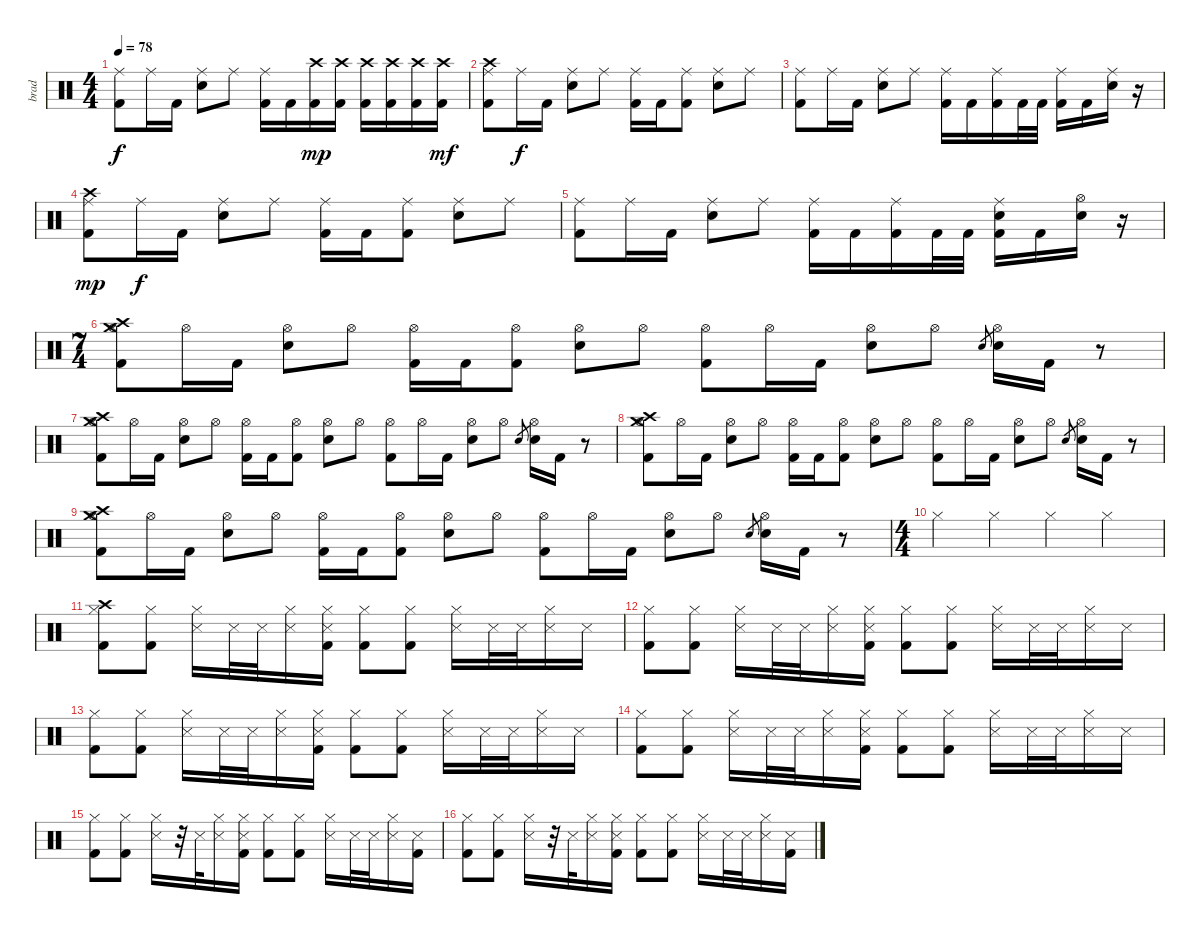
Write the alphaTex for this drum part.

\track ("brad" "brad") {instrument percussion}
\staff {score}
\articulation defaults
\ts (4 4)
\tempo 78
\clef neutral
\ks c
("Ride (middle)" "Kick (hit) 2").8{dy f} "Ride (middle)".16 "Kick (hit) 2".16 ("Ride (middle)" "Electric Snare (hit)").8 "Ride (middle)".8 ("Ride (middle)" "Kick (hit) 2").16 "Kick (hit) 2".16 ("Crash high (hit)" "Kick (hit) 2").16{dy mp} ("Crash high (hit)" "Kick (hit) 2").16 ("Crash high (hit)" "Kick (hit) 2").16 ("Crash high (hit)" "Kick (hit) 2").16 ("Crash high (hit)" "Kick (hit) 2").16 ("Crash high (hit)" "Kick (hit) 2").16{dy mf} |
("Crash high (hit)" "Ride (middle)" "Kick (hit) 2").8 "Ride (middle)".16{dy f} "Kick (hit) 2".16 ("Ride (middle)" "Electric Snare (hit)").8 "Ride (middle)".8 ("Ride (middle)" "Kick (hit) 2").16 "Kick (hit) 2".16 ("Ride (middle)" "Kick (hit) 2").8 ("Ride (middle)" "Electric Snare (hit)").8 "Ride (middle)".8 |
("Ride (middle)" "Kick (hit) 2").8 "Ride (middle)".16 "Kick (hit) 2".16 ("Ride (middle)" "Electric Snare (hit)").8 "Ride (middle)".8 ("Ride (middle)" "Kick (hit) 2").16 "Kick (hit) 2".16 ("Ride (middle)" "Kick (hit) 2").16 "Kick (hit) 2".32 "Kick (hit) 2".32 ("Ride (middle)" "Kick (hit) 2").16 "Kick (hit) 2".16 ("Ride (middle)" "Electric Snare (hit)").16 r.16 |
("Crash high (hit)" "Ride (middle)" "Kick (hit) 2").8{dy mp} "Ride (middle)".16{dy f} "Kick (hit) 2".16 ("Ride (middle)" "Electric Snare (hit)").8 "Ride (middle)".8 ("Ride (middle)" "Kick (hit) 2").16 "Kick (hit) 2".16 ("Ride (middle)" "Kick (hit) 2").8 ("Ride (middle)" "Electric Snare (hit)").8 "Ride (middle)".8 |
("Ride (middle)" "Kick (hit) 2").8 "Ride (middle)".16 "Kick (hit) 2".16 ("Ride (middle)" "Electric Snare (hit)").8 "Ride (middle)".8 ("Ride (middle)" "Kick (hit) 2").16 "Kick (hit) 2".16 ("Ride (middle)" "Kick (hit) 2").16 "Kick (hit) 2".32 "Kick (hit) 2".32 ("Ride (middle)" "Electric Snare (hit)" "Kick (hit) 2").16 "Kick (hit) 2".16 ("Hi-Hat (open)" "Electric Snare (hit)").16 r.16 |
\ts (7 4)
("Crash medium (hit)" "Crash high (hit)" "Hi-Hat (open)" "Kick (hit) 2").8 "Hi-Hat (open)".16 "Kick (hit) 2".16 ("Hi-Hat (open)" "Electric Snare (hit)").8 "Hi-Hat (open)".8 ("Hi-Hat (open)" "Kick (hit) 2").16 "Kick (hit) 2".16 ("Hi-Hat (open)" "Kick (hit) 2").8 ("Hi-Hat (open)" "Electric Snare (hit)").8 "Hi-Hat (open)".8 ("Hi-Hat (open)" "Kick (hit) 2").8 "Hi-Hat (open)".16 "Kick (hit) 2".16 ("Hi-Hat (open)" "Electric Snare (hit)").8 "Hi-Hat (open)".8 "Electric Snare (hit)".8{gr} ("Hi-Hat (open)" "Electric Snare (hit)").16 "Kick (hit) 2".16 r.8 |
("Crash medium (hit)" "Crash high (hit)" "Hi-Hat (open)" "Kick (hit) 2").8 "Hi-Hat (open)".16 "Kick (hit) 2".16 ("Hi-Hat (open)" "Electric Snare (hit)").8 "Hi-Hat (open)".8 ("Hi-Hat (open)" "Kick (hit) 2").16 "Kick (hit) 2".16 ("Hi-Hat (open)" "Kick (hit) 2").8 ("Hi-Hat (open)" "Electric Snare (hit)").8 "Hi-Hat (open)".8 ("Hi-Hat (open)" "Kick (hit) 2").8 "Hi-Hat (open)".16 "Kick (hit) 2".16 ("Hi-Hat (open)" "Electric Snare (hit)").8 "Hi-Hat (open)".8 "Electric Snare (hit)".8{gr} ("Hi-Hat (open)" "Electric Snare (hit)").16 "Kick (hit) 2".16 r.8 |
("Crash medium (hit)" "Crash high (hit)" "Hi-Hat (open)" "Kick (hit) 2").8 "Hi-Hat (open)".16 "Kick (hit) 2".16 ("Hi-Hat (open)" "Electric Snare (hit)").8 "Hi-Hat (open)".8 ("Hi-Hat (open)" "Kick (hit) 2").16 "Kick (hit) 2".16 ("Hi-Hat (open)" "Kick (hit) 2").8 ("Hi-Hat (open)" "Electric Snare (hit)").8 "Hi-Hat (open)".8 ("Hi-Hat (open)" "Kick (hit) 2").8 "Hi-Hat (open)".16 "Kick (hit) 2".16 ("Hi-Hat (open)" "Electric Snare (hit)").8 "Hi-Hat (open)".8 "Electric Snare (hit)".8{gr} ("Hi-Hat (open)" "Electric Snare (hit)").16 "Kick (hit) 2".16 r.8 |
("Crash medium (hit)" "Crash high (hit)" "Hi-Hat (open)" "Kick (hit) 2").8 "Hi-Hat (open)".16 "Kick (hit) 2".16 ("Hi-Hat (open)" "Electric Snare (hit)").8 "Hi-Hat (open)".8 ("Hi-Hat (open)" "Kick (hit) 2").16 "Kick (hit) 2".16 ("Hi-Hat (open)" "Kick (hit) 2").8 ("Hi-Hat (open)" "Electric Snare (hit)").8 "Hi-Hat (open)".8 ("Hi-Hat (open)" "Kick (hit) 2").8 "Hi-Hat (open)".16 "Kick (hit) 2".16 ("Hi-Hat (open)" "Electric Snare (hit)").8 "Hi-Hat (open)".8 "Electric Snare (hit)".8{gr} ("Hi-Hat (open)" "Electric Snare (hit)").16 "Kick (hit) 2".16 r.8 |
\ts (4 4)
"Hi-Hat (closed)".4 "Hi-Hat (closed)".4 "Hi-Hat (closed)".4 "Hi-Hat (closed)".4 |
("Crash high (hit)" "Hi-Hat (closed)" "Kick (hit) 2").8 ("Hi-Hat (closed)" "Kick (hit) 2").8 ("Hi-Hat (closed)" "Snare (side stick) 3").16 "Snare (side stick) 3".32 "Snare (side stick) 3".32 ("Hi-Hat (closed)" "Snare (side stick) 3").16 ("Hi-Hat (closed)" "Snare (side stick) 3" "Kick (hit) 2").16 ("Hi-Hat (closed)" "Kick (hit) 2").8 ("Hi-Hat (closed)" "Kick (hit) 2").8 ("Hi-Hat (closed)" "Snare (side stick) 3").16 "Snare (side stick) 3".32 "Snare (side stick) 3".32 ("Hi-Hat (closed)" "Snare (side stick) 3").16 "Snare (side stick) 3".16 |
("Hi-Hat (closed)" "Kick (hit) 2").8 ("Hi-Hat (closed)" "Kick (hit) 2").8 ("Hi-Hat (closed)" "Snare (side stick) 3").16 "Snare (side stick) 3".32 "Snare (side stick) 3".32 ("Hi-Hat (closed)" "Snare (side stick) 3").16 ("Hi-Hat (closed)" "Snare (side stick) 3" "Kick (hit) 2").16 ("Hi-Hat (closed)" "Kick (hit) 2").8 ("Hi-Hat (closed)" "Kick (hit) 2").8 ("Hi-Hat (closed)" "Snare (side stick) 3").16 "Snare (side stick) 3".32 "Snare (side stick) 3".32 ("Hi-Hat (closed)" "Snare (side stick) 3").16 "Snare (side stick) 3".16 |
("Hi-Hat (closed)" "Kick (hit) 2").8 ("Hi-Hat (closed)" "Kick (hit) 2").8 ("Hi-Hat (closed)" "Snare (side stick) 3").16 "Snare (side stick) 3".32 "Snare (side stick) 3".32 ("Hi-Hat (closed)" "Snare (side stick) 3").16 ("Hi-Hat (closed)" "Snare (side stick) 3" "Kick (hit) 2").16 ("Hi-Hat (closed)" "Kick (hit) 2").8 ("Hi-Hat (closed)" "Kick (hit) 2").8 ("Hi-Hat (closed)" "Snare (side stick) 3").16 "Snare (side stick) 3".32 "Snare (side stick) 3".32 ("Hi-Hat (closed)" "Snare (side stick) 3").16 "Snare (side stick) 3".16 |
("Hi-Hat (closed)" "Kick (hit) 2").8 ("Hi-Hat (closed)" "Kick (hit) 2").8 ("Hi-Hat (closed)" "Snare (side stick) 3").16 "Snare (side stick) 3".32 "Snare (side stick) 3".32 ("Hi-Hat (closed)" "Snare (side stick) 3").16 ("Hi-Hat (closed)" "Snare (side stick) 3" "Kick (hit) 2").16 ("Hi-Hat (closed)" "Kick (hit) 2").8 ("Hi-Hat (closed)" "Kick (hit) 2").8 ("Hi-Hat (closed)" "Snare (side stick) 3").16 "Snare (side stick) 3".32 "Snare (side stick) 3".32 ("Hi-Hat (closed)" "Snare (side stick) 3").16 "Snare (side stick) 3".16 |
("Hi-Hat (closed)" "Kick (hit) 2").8 ("Hi-Hat (closed)" "Kick (hit) 2").8 ("Hi-Hat (closed)" "Snare (side stick) 3").16 r.32 "Snare (side stick) 3".32 ("Hi-Hat (closed)" "Snare (side stick) 3").16 ("Hi-Hat (closed)" "Snare (side stick) 3" "Kick (hit) 2").16 ("Hi-Hat (closed)" "Kick (hit) 2").8 ("Hi-Hat (closed)" "Kick (hit) 2").8 ("Hi-Hat (closed)" "Snare (side stick) 3").16 "Snare (side stick) 3".32 "Snare (side stick) 3".32 ("Hi-Hat (closed)" "Snare (side stick) 3").16 ("Snare (side stick) 3" "Kick (hit) 2").16 |
("Hi-Hat (closed)" "Kick (hit) 2").8 ("Hi-Hat (closed)" "Kick (hit) 2").8 ("Hi-Hat (closed)" "Snare (side stick) 3").16 r.32 "Snare (side stick) 3".32 ("Hi-Hat (closed)" "Snare (side stick) 3").16 ("Hi-Hat (closed)" "Snare (side stick) 3" "Kick (hit) 2").16 ("Hi-Hat (closed)" "Kick (hit) 2").8 ("Hi-Hat (closed)" "Kick (hit) 2").8 ("Hi-Hat (closed)" "Snare (side stick) 3").16 "Snare (side stick) 3".32 "Snare (side stick) 3".32 ("Hi-Hat (closed)" "Snare (side stick) 3").16 ("Snare (side stick) 3" "Kick (hit) 2").16
